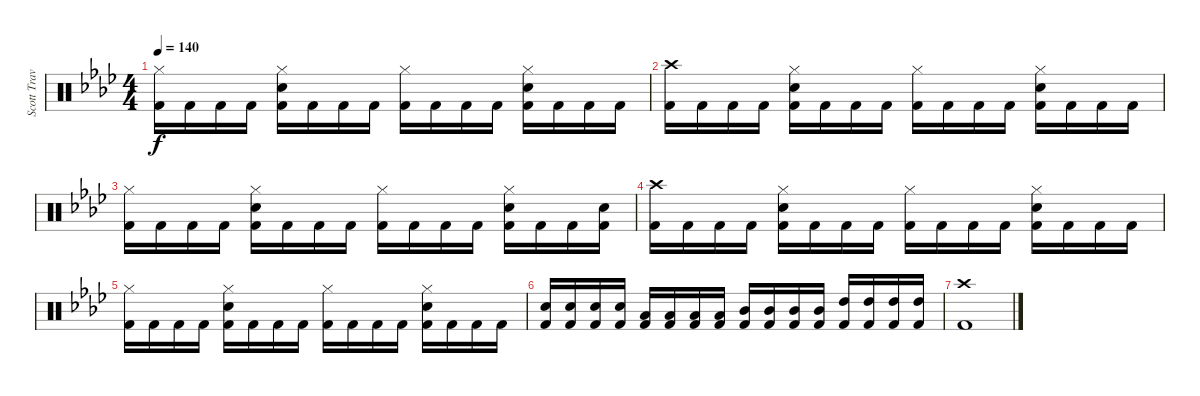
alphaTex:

\track ("Scott Travis" "Scott Trav") {instrument percussion}
\staff {score}
\articulation defaults
\ts (4 4)
\tempo 140
\clef neutral
\ks fminor
("Hi-Hat (closed)" "Kick (hit) 2").16{dy f} "Kick (hit) 2".16 "Kick (hit) 2".16 "Kick (hit) 2".16 ("Hi-Hat (closed)" "Electric Snare (hit)" "Kick (hit) 2").16 "Kick (hit) 2".16 "Kick (hit) 2".16 "Kick (hit) 2".16 ("Hi-Hat (closed)" "Kick (hit) 2").16 "Kick (hit) 2".16 "Kick (hit) 2".16 "Kick (hit) 2".16 ("Hi-Hat (closed)" "Electric Snare (hit)" "Kick (hit) 2").16 "Kick (hit) 2".16 "Kick (hit) 2".16 "Kick (hit) 2".16 |
("Crash high (hit)" "Kick (hit) 2").16 "Kick (hit) 2".16 "Kick (hit) 2".16 "Kick (hit) 2".16 ("Hi-Hat (closed)" "Electric Snare (hit)" "Kick (hit) 2").16 "Kick (hit) 2".16 "Kick (hit) 2".16 "Kick (hit) 2".16 ("Hi-Hat (closed)" "Kick (hit) 2").16 "Kick (hit) 2".16 "Kick (hit) 2".16 "Kick (hit) 2".16 ("Hi-Hat (closed)" "Electric Snare (hit)" "Kick (hit) 2").16 "Kick (hit) 2".16 "Kick (hit) 2".16 "Kick (hit) 2".16 |
("Hi-Hat (closed)" "Kick (hit) 2").16 "Kick (hit) 2".16 "Kick (hit) 2".16 "Kick (hit) 2".16 ("Hi-Hat (closed)" "Electric Snare (hit)" "Kick (hit) 2").16 "Kick (hit) 2".16 "Kick (hit) 2".16 "Kick (hit) 2".16 ("Hi-Hat (closed)" "Kick (hit) 2").16 "Kick (hit) 2".16 "Kick (hit) 2".16 "Kick (hit) 2".16 ("Hi-Hat (closed)" "Electric Snare (hit)" "Kick (hit) 2").16 "Kick (hit) 2".16 "Kick (hit) 2".16 ("Electric Snare (hit)" "Kick (hit) 2").16 |
("Crash high (hit)" "Kick (hit) 2").16 "Kick (hit) 2".16 "Kick (hit) 2".16 "Kick (hit) 2".16 ("Hi-Hat (closed)" "Electric Snare (hit)" "Kick (hit) 2").16 "Kick (hit) 2".16 "Kick (hit) 2".16 "Kick (hit) 2".16 ("Hi-Hat (closed)" "Kick (hit) 2").16 "Kick (hit) 2".16 "Kick (hit) 2".16 "Kick (hit) 2".16 ("Hi-Hat (closed)" "Electric Snare (hit)" "Kick (hit) 2").16 "Kick (hit) 2".16 "Kick (hit) 2".16 "Kick (hit) 2".16 |
("Hi-Hat (closed)" "Kick (hit) 2").16 "Kick (hit) 2".16 "Kick (hit) 2".16 "Kick (hit) 2".16 ("Hi-Hat (closed)" "Electric Snare (hit)" "Kick (hit) 2").16 "Kick (hit) 2".16 "Kick (hit) 2".16 "Kick (hit) 2".16 ("Hi-Hat (closed)" "Kick (hit) 2").16 "Kick (hit) 2".16 "Kick (hit) 2".16 "Kick (hit) 2".16 ("Hi-Hat (closed)" "Electric Snare (hit)" "Kick (hit) 2").16 "Kick (hit) 2".16 "Kick (hit) 2".16 "Kick (hit) 2".16 |
("Electric Snare (hit)" "Kick (hit) 2").16 ("Electric Snare (hit)" "Kick (hit) 2").16 ("Electric Snare (hit)" "Kick (hit) 2").16 ("Electric Snare (hit)" "Kick (hit) 2").16 ("Low Tom (hit)" "Kick (hit) 2").16 ("Low Tom (hit)" "Kick (hit) 2").16 ("Low Tom (hit)" "Kick (hit) 2").16 ("Low Tom (hit)" "Kick (hit) 2").16 ("Mid Tom (hit)" "Kick (hit) 2").16 ("Mid Tom (hit)" "Kick (hit) 2").16 ("Mid Tom (hit)" "Kick (hit) 2").16 ("Mid Tom (hit)" "Kick (hit) 2").16 ("High Tom (hit)" "Kick (hit) 2").16 ("High Tom (hit)" "Kick (hit) 2").16 ("High Tom (hit)" "Kick (hit) 2").16 ("High Tom (hit)" "Kick (hit) 2").16 |
("Crash high (hit)" "Kick (hit) 2").1
